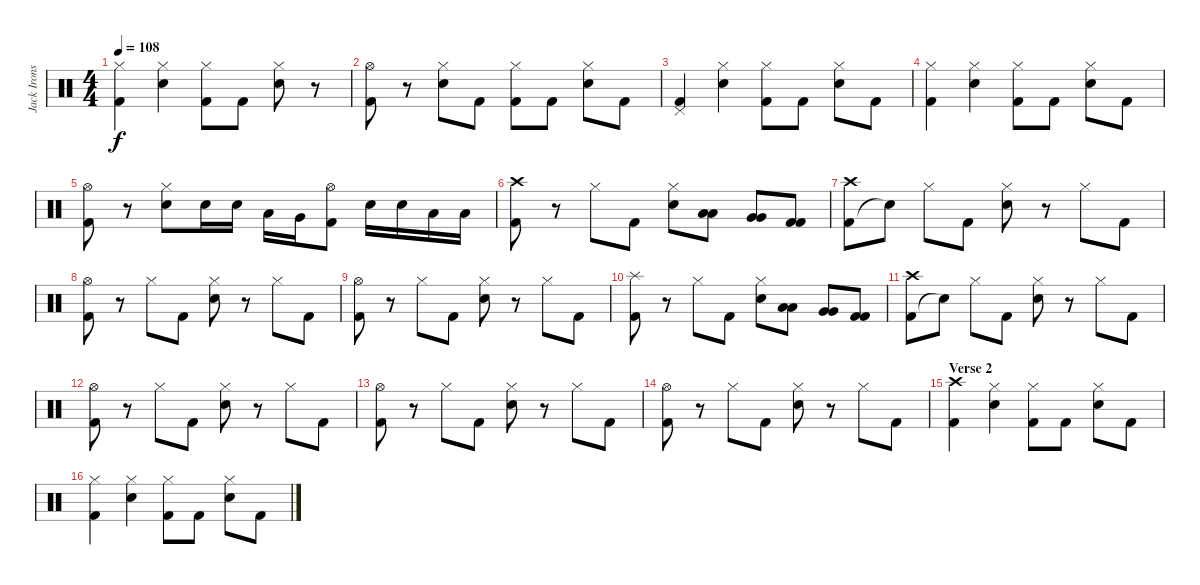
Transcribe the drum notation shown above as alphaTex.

\track ("Jack Irons" "Jack Irons") {instrument percussion}
\staff {score}
\articulation defaults
\ts (4 4)
\tempo 108
\clef neutral
\ks c
("Kick (hit) 2" "Hi-Hat (closed)").4{dy f} ("Electric Snare (hit)" "Hi-Hat (closed)").4 ("Kick (hit) 2" "Hi-Hat (closed)").8 "Kick (hit) 2".8 ("Electric Snare (hit)" "Hi-Hat (closed)").8 r.8 |
("Kick (hit) 2" "Hi-Hat (open)").8 r.8 ("Electric Snare (hit)" "Hi-Hat (closed)").8 "Kick (hit) 2".8 ("Kick (hit) 2" "Hi-Hat (closed)").8 "Kick (hit) 2".8 ("Electric Snare (hit)" "Hi-Hat (closed)").8 "Kick (hit) 2".8 |
("Pedal Hi-Hat (hit)" "Kick (hit) 2").4 ("Electric Snare (hit)" "Hi-Hat (closed)").4 ("Kick (hit) 2" "Hi-Hat (closed)").8 "Kick (hit) 2".8 ("Electric Snare (hit)" "Hi-Hat (closed)").8 "Kick (hit) 2".8 |
("Kick (hit) 2" "Hi-Hat (closed)").4 ("Electric Snare (hit)" "Hi-Hat (closed)").4 ("Kick (hit) 2" "Hi-Hat (closed)").8 "Kick (hit) 2".8 ("Electric Snare (hit)" "Hi-Hat (closed)").8 "Kick (hit) 2".8 |
("Kick (hit) 2" "Hi-Hat (open)").8 r.8 ("Electric Snare (hit)" "Hi-Hat (closed)").8 "Electric Snare (hit)".16 "Electric Snare (hit)".16 "Low Tom (hit)".16 "Very Low Tom (hit)".16 ("Kick (hit) 2" "Hi-Hat (open)").8 "Electric Snare (hit)".16 "Electric Snare (hit)".16 "Low Tom (hit)".16 "Low Tom (hit)".16 |
("Kick (hit) 2" "Crash high (hit)").8 r.8 "Hi-Hat (closed)".8 "Kick (hit) 2".8 ("Electric Snare (hit)" "Hi-Hat (closed)").8 ("Low Tom (hit)" "Low Tom (hit)").8 ("Very Low Tom (hit)" "Very Low Tom (hit)").8 ("Kick (hit) 2" "Kick (hit) 2").8 |
\section ("" "")
("Kick (hit) 2" "Crash high (hit)").8 "Snare (hit)"{t}.8 "Hi-Hat (closed)".8 "Kick (hit) 2".8 ("Electric Snare (hit)" "Hi-Hat (closed)").8 r.8 "Hi-Hat (closed)".8 "Kick (hit) 2".8 |
("Kick (hit) 2" "Hi-Hat (open)").8 r.8 "Hi-Hat (closed)".8 "Kick (hit) 2".8 ("Electric Snare (hit)" "Hi-Hat (closed)").8 r.8 "Hi-Hat (closed)".8 "Kick (hit) 2".8 |
("Kick (hit) 2" "Hi-Hat (open)").8 r.8 "Hi-Hat (closed)".8 "Kick (hit) 2".8 ("Electric Snare (hit)" "Hi-Hat (closed)").8 r.8 "Hi-Hat (closed)".8 "Kick (hit) 2".8 |
("Kick (hit) 2" "Splash (hit)").8 r.8 "Hi-Hat (closed)".8 "Kick (hit) 2".8 ("Electric Snare (hit)" "Hi-Hat (closed)").8 ("Low Tom (hit)" "Low Tom (hit)").8 ("Very Low Tom (hit)" "Very Low Tom (hit)").8 ("Kick (hit) 2" "Kick (hit) 2").8 |
("Kick (hit) 2" "Crash high (hit)").8 "Snare (hit)"{t}.8 "Hi-Hat (closed)".8 "Kick (hit) 2".8 ("Electric Snare (hit)" "Hi-Hat (closed)").8 r.8 "Hi-Hat (closed)".8 "Kick (hit) 2".8 |
("Kick (hit) 2" "Hi-Hat (open)").8 r.8 "Hi-Hat (closed)".8 "Kick (hit) 2".8 ("Electric Snare (hit)" "Hi-Hat (closed)").8 r.8 "Hi-Hat (closed)".8 "Kick (hit) 2".8 |
("Kick (hit) 2" "Hi-Hat (open)").8 r.8 "Hi-Hat (closed)".8 "Kick (hit) 2".8 ("Electric Snare (hit)" "Hi-Hat (closed)").8 r.8 "Hi-Hat (closed)".8 "Kick (hit) 2".8 |
("Kick (hit) 2" "Hi-Hat (open)").8 r.8 "Hi-Hat (closed)".8 "Kick (hit) 2".8 ("Electric Snare (hit)" "Hi-Hat (closed)").8 r.8 "Hi-Hat (closed)".8 "Kick (hit) 2".8 |
\section ("" "Verse 2")
("Crash high (hit)" "Kick (hit) 2").4 ("Electric Snare (hit)" "Hi-Hat (closed)").4 ("Kick (hit) 2" "Hi-Hat (closed)").8 "Kick (hit) 2".8 ("Electric Snare (hit)" "Hi-Hat (closed)").8 "Kick (hit) 2".8 |
("Kick (hit) 2" "Hi-Hat (closed)").4 ("Electric Snare (hit)" "Hi-Hat (closed)").4 ("Kick (hit) 2" "Hi-Hat (closed)").8 "Kick (hit) 2".8 ("Electric Snare (hit)" "Hi-Hat (closed)").8 "Kick (hit) 2".8
